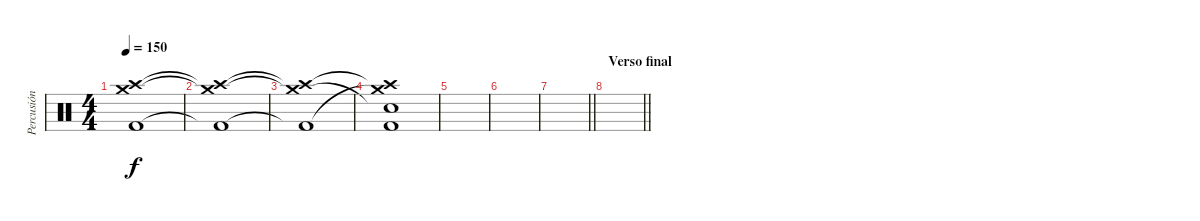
\track ("Percusión" "Percusión") {instrument percussion}
\staff {score}
\articulation defaults
\ts (4 4)
\tempo 150
\clef neutral
\ks c
("Crash high (hit)" "Crash medium (hit)" "Kick (hit) 2").1{dy f volume 2} |
("Crash high (hit)"{t} "Crash medium (hit)"{t} "Kick (hit) 2"{t}).1 |
("Crash high (hit)"{t} "Crash medium (hit)"{t} "Kick (hit) 2"{t}).1 |
("Crash high (hit)"{t} "Snare (hit)"{t} "Crash medium (hit)"{t} "Kick (hit) 2").1 |
|
|
\barLineRight lightlight
|
\section ("" "Verso final")
\barLineRight lightlight
